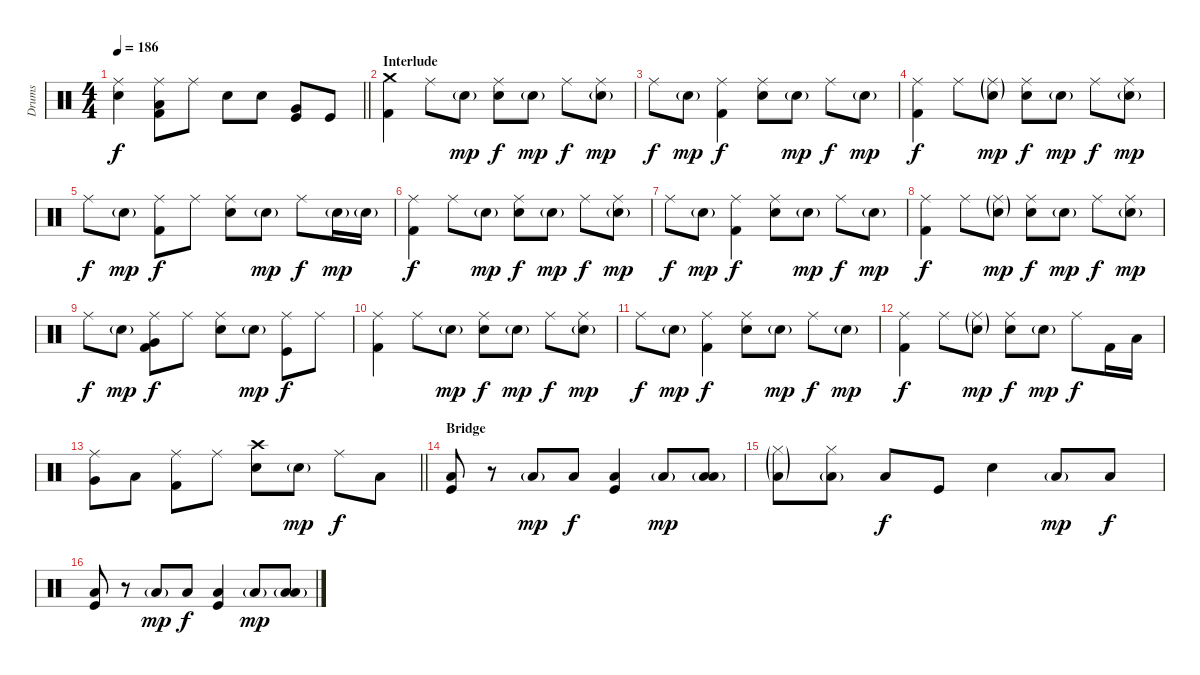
\track ("Drums" "Drums") {instrument percussion}
\staff {score}
\articulation defaults
\ts (4 4)
\tempo 186
\clef neutral
\barLineRight lightlight
\ks c
("Ride (middle)" "Electric Snare (hit)").4{dy f} ("Ride (middle)" "Low Tom (hit)" "Kick (hit) 2").8 "Ride (middle)".8 "Electric Snare (hit)".8 "Electric Snare (hit)".8 ("Very Low Tom (hit)" "Kick (hit)").8 "Kick (hit)".8 |
\section ("" "Interlude")
("Crash medium (hit)" "Kick (hit) 2").4 "Ride (middle)".8 "Electric Snare (hit)"{g}.8{dy mp} ("Ride (middle)" "Electric Snare (hit)").8{dy f} "Electric Snare (hit)"{g}.8{dy mp} "Ride (middle)".8{dy f} ("Ride (middle)" "Electric Snare (hit)"{g}).8{dy mp} |
"Ride (middle)".8{dy f} "Electric Snare (hit)"{g}.8{dy mp} ("Ride (middle)" "Kick (hit) 2").4{dy f} ("Ride (middle)" "Electric Snare (hit)").8 "Electric Snare (hit)"{g}.8{dy mp} "Ride (middle)".8{dy f} "Electric Snare (hit)"{g}.8{dy mp} |
("Ride (middle)" "Kick (hit) 2").4{dy f} "Ride (middle)".8 ("Ride (middle)"{g} "Electric Snare (hit)"{g}).8{dy mp} ("Ride (middle)" "Electric Snare (hit)").8{dy f} "Electric Snare (hit)"{g}.8{dy mp} "Ride (middle)".8{dy f} ("Ride (middle)" "Electric Snare (hit)"{g}).8{dy mp} |
"Ride (middle)".8{dy f} "Electric Snare (hit)"{g}.8{dy mp} ("Ride (middle)" "Kick (hit) 2").8{dy f} "Ride (middle)".8 ("Ride (middle)" "Electric Snare (hit)").8 "Electric Snare (hit)"{g}.8{dy mp} "Ride (middle)".8{dy f} "Electric Snare (hit)"{g}.16{dy mp} "Electric Snare (hit)"{g}.16 |
("Ride (middle)" "Kick (hit) 2").4{dy f} "Ride (middle)".8 "Electric Snare (hit)"{g}.8{dy mp} ("Ride (middle)" "Electric Snare (hit)").8{dy f} "Electric Snare (hit)"{g}.8{dy mp} "Ride (middle)".8{dy f} ("Ride (middle)" "Electric Snare (hit)"{g}).8{dy mp} |
"Ride (middle)".8{dy f} "Electric Snare (hit)"{g}.8{dy mp} ("Ride (middle)" "Kick (hit) 2").4{dy f} ("Ride (middle)" "Electric Snare (hit)").8 "Electric Snare (hit)"{g}.8{dy mp} "Ride (middle)".8{dy f} "Electric Snare (hit)"{g}.8{dy mp} |
("Ride (middle)" "Kick (hit) 2").4{dy f} "Ride (middle)".8 ("Ride (middle)"{g} "Electric Snare (hit)"{g}).8{dy mp} ("Ride (middle)" "Electric Snare (hit)").8{dy f} "Electric Snare (hit)"{g}.8{dy mp} "Ride (middle)".8{dy f} ("Ride (middle)" "Electric Snare (hit)"{g}).8{dy mp} |
"Ride (middle)".8{dy f} "Electric Snare (hit)"{g}.8{dy mp} ("Ride (middle)" "Very Low Tom (hit)" "Kick (hit) 2").8{dy f} "Ride (middle)".8 ("Ride (middle)" "Electric Snare (hit)").8 "Electric Snare (hit)"{g}.8{dy mp} ("Ride (middle)" "Kick (hit)").8{dy f} "Ride (middle)".8 |
("Ride (middle)" "Kick (hit) 2").4 "Ride (middle)".8 "Electric Snare (hit)"{g}.8{dy mp} ("Ride (middle)" "Electric Snare (hit)").8{dy f} "Electric Snare (hit)"{g}.8{dy mp} "Ride (middle)".8{dy f} ("Ride (middle)" "Electric Snare (hit)"{g}).8{dy mp} |
"Ride (middle)".8{dy f} "Electric Snare (hit)"{g}.8{dy mp} ("Ride (middle)" "Kick (hit) 2").4{dy f} ("Ride (middle)" "Electric Snare (hit)").8 "Electric Snare (hit)"{g}.8{dy mp} "Ride (middle)".8{dy f} "Electric Snare (hit)"{g}.8{dy mp} |
("Ride (middle)" "Kick (hit) 2").4{dy f} "Ride (middle)".8 ("Ride (middle)"{g} "Electric Snare (hit)"{g}).8{dy mp} ("Ride (middle)" "Electric Snare (hit)").8{dy f} "Electric Snare (hit)"{g}.8{dy mp} "Ride (middle)".8{dy f} "Kick (hit) 2".16 "Low Tom (hit)".16 |
\barLineRight lightlight
("Ride (middle)" "Very Low Tom (hit)").8 "Low Floor Tom (hit)".8 ("Ride (middle)" "Kick (hit) 2").8 "Ride (middle)".8 ("Crash high (hit)" "Electric Snare (hit)").8 "Electric Snare (hit)"{g}.8{dy mp} "Ride (middle)".8{dy f} "Low Floor Tom (hit)".8 |
\section ("" "Bridge")
("Low Floor Tom (hit)" "Kick (hit)").8 r.8 "Low Floor Tom (hit)"{g}.8{dy mp} "Low Floor Tom (hit)".8{dy f} ("Low Floor Tom (hit)" "Kick (hit)").4 "Low Floor Tom (hit)"{g}.8{dy mp} ("Low Tom (hit)" "Low Floor Tom (hit)"{g}).8 |
("Hi-Hat (closed)"{g} "Low Floor Tom (hit)"{g}).8 ("Hi-Hat (closed)" "Low Floor Tom (hit)"{g}).8 "Low Floor Tom (hit)".8{dy f} "Kick (hit)".8 "Electric Snare (hit)".4 "Low Floor Tom (hit)"{g}.8{dy mp} "Low Floor Tom (hit)".8{dy f} |
("Low Floor Tom (hit)" "Kick (hit)").8 r.8 "Low Floor Tom (hit)"{g}.8{dy mp} "Low Floor Tom (hit)".8{dy f} ("Low Floor Tom (hit)" "Kick (hit)").4 "Low Floor Tom (hit)"{g}.8{dy mp} ("Low Tom (hit)" "Low Floor Tom (hit)"{g}).8
